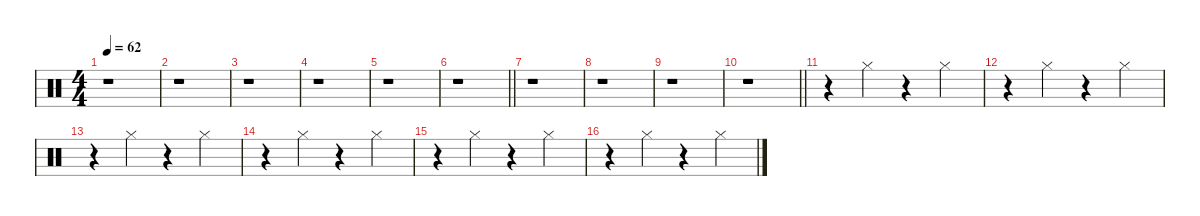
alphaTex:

\defaultSystemsLayout 4
\hideDynamics
\bracketExtendMode nobrackets
\singleTrackTrackNamePolicy hidden
\multiTrackTrackNamePolicy hidden
\firstSystemTrackNameMode fullname
\otherSystemsTrackNameOrientation horizontal
\track ("Drums" "drm.") {defaultSystemsLayout 4 instrument percussion}
\staff {score}
\articulation defaults
\ts (4 4)
\beaming (8 2 2 2 2)
\tempo 62
\clef neutral
\ks c
r.1{dy f beam Down} |
r.1{beam Down} |
r.1{beam Down} |
r.1{beam Down} |
r.1{beam Down} |
\barLineRight lightlight
r.1{beam Down} |
r.1{beam Down} |
r.1{beam Down} |
r.1{beam Down} |
\barLineRight lightlight
r.1{beam Down} |
r.4{beam Down} "Hi-Hat (closed)".4{beam Down} r.4{beam Down} "Hi-Hat (closed)".4{beam Down} |
r.4{beam Down} "Hi-Hat (closed)".4{beam Down} r.4{beam Down} "Hi-Hat (closed)".4{beam Down} |
r.4{beam Down} "Hi-Hat (closed)".4{beam Down} r.4{beam Down} "Hi-Hat (closed)".4{beam Down} |
r.4{beam Down} "Hi-Hat (closed)".4{beam Down} r.4{beam Down} "Hi-Hat (closed)".4{beam Down} |
r.4{beam Down} "Hi-Hat (closed)".4{beam Down} r.4{beam Down} "Hi-Hat (closed)".4{beam Down} |
r.4{beam Down} "Hi-Hat (closed)".4{beam Down} r.4{beam Down} "Hi-Hat (closed)".4{beam Down}
